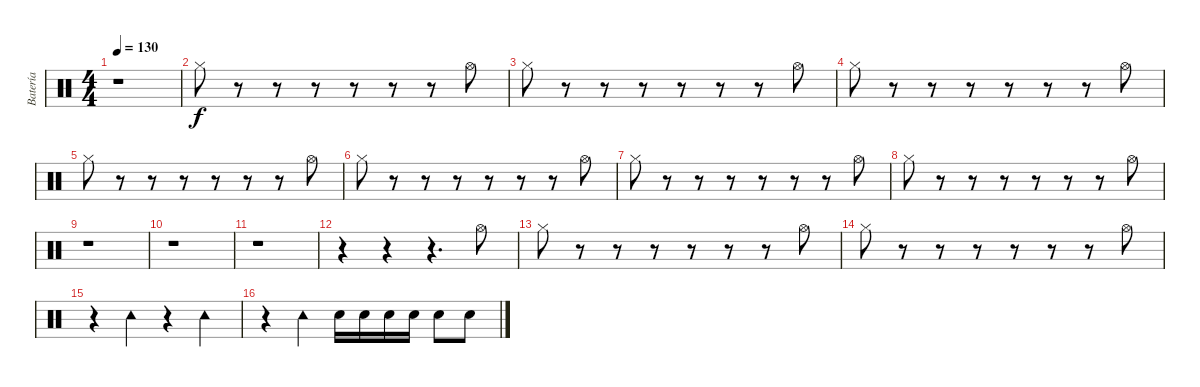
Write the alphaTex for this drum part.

\track ("Batería" "Batería") {instrument percussion}
\staff {score}
\articulation defaults
\ts (4 4)
\tempo 130
\clef neutral
\ks c
r.1{dy mp} |
"Hi-Hat (closed)".8{dy f} r.8 r.8 r.8 r.8 r.8 r.8 "Hi-Hat (open)".8 |
"Hi-Hat (closed)".8 r.8 r.8 r.8 r.8 r.8 r.8 "Hi-Hat (open)".8 |
"Hi-Hat (closed)".8 r.8 r.8 r.8 r.8 r.8 r.8 "Hi-Hat (open)".8 |
"Hi-Hat (closed)".8 r.8 r.8 r.8 r.8 r.8 r.8 "Hi-Hat (open)".8 |
"Hi-Hat (closed)".8 r.8 r.8 r.8 r.8 r.8 r.8 "Hi-Hat (open)".8 |
"Hi-Hat (closed)".8 r.8 r.8 r.8 r.8 r.8 r.8 "Hi-Hat (open)".8 |
"Hi-Hat (closed)".8 r.8 r.8 r.8 r.8 r.8 r.8 "Hi-Hat (open)".8 |
r.1 |
r.1 |
r.1 |
r.4 r.4 r.4{d} "Hi-Hat (open)".8 |
"Hi-Hat (closed)".8 r.8 r.8 r.8 r.8 r.8 r.8 "Hi-Hat (open)".8 |
"Hi-Hat (closed)".8 r.8 r.8 r.8 r.8 r.8 r.8 "Hi-Hat (open)".8 |
r.4 "Tambourine (hit)".4 r.4 "Tambourine (hit)".4 |
r.4 "Tambourine (hit)".4 "Snare (hit) 2".16 "Snare (hit) 2".16 "Snare (hit) 2".16 "Snare (hit) 2".16 "Snare (hit) 2".8 "Snare (hit) 2".8
